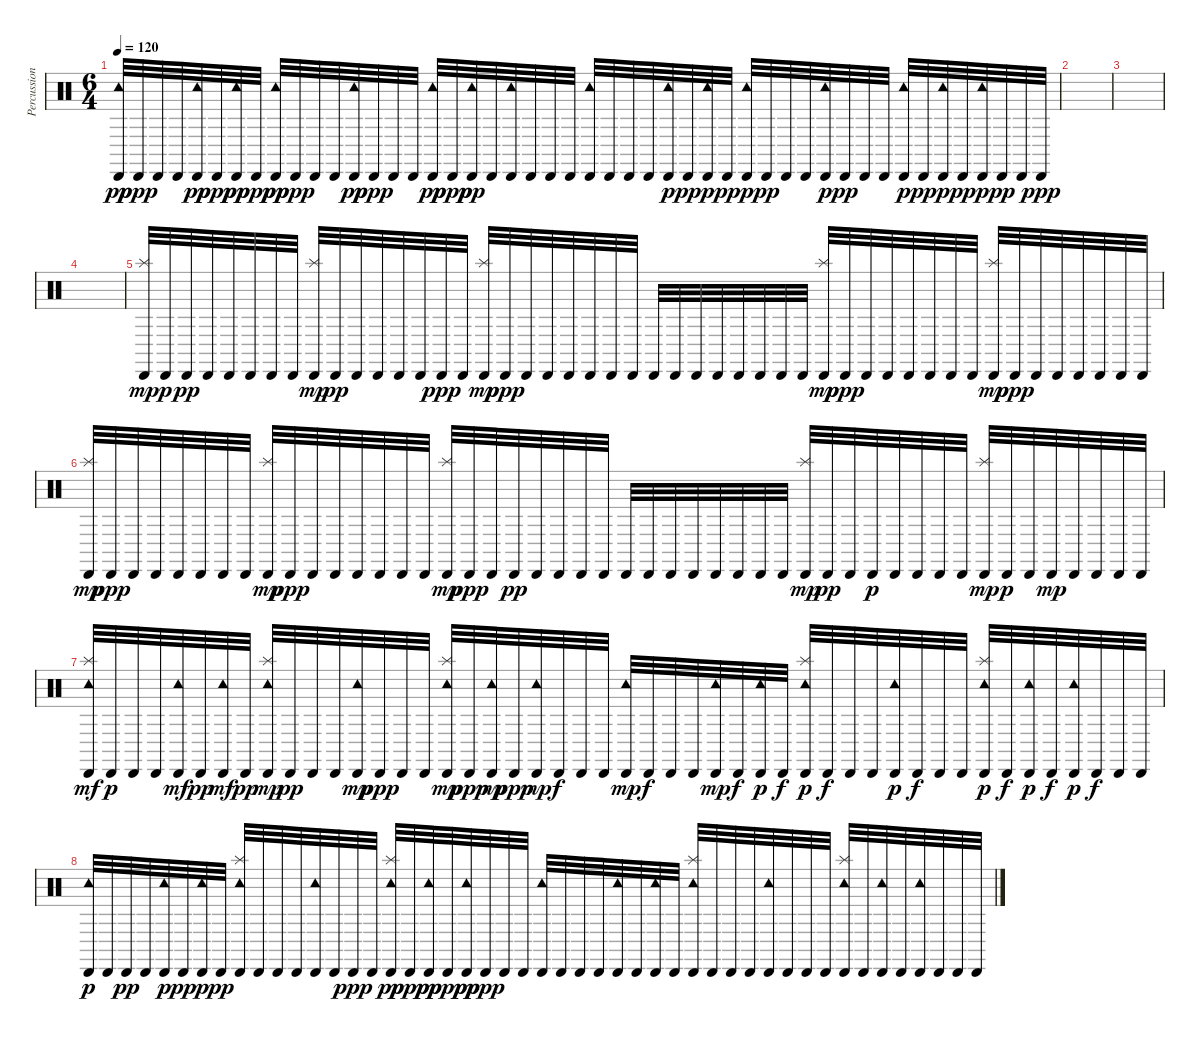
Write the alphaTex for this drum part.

\track ("Percussion" "Percussion") {instrument percussion}
\staff {score}
\articulation defaults
\ts (6 4)
\tempo 120
\clef neutral
\ks c
("Cabasa (hit)" "Tambourine (hit)").32{dy pp} "Cabasa (hit)".32{dy ppp} "Cabasa (hit)".32 "Cabasa (hit)".32 ("Cabasa (hit)" "Tambourine (hit)").32{dy pp} "Cabasa (hit)".32{dy ppp} ("Cabasa (hit)" "Tambourine (hit)").32{dy pp} "Cabasa (hit)".32{dy ppp} ("Cabasa (hit)" "Tambourine (hit)").32{dy pp} "Cabasa (hit)".32{dy ppp} "Cabasa (hit)".32 "Cabasa (hit)".32 ("Cabasa (hit)" "Tambourine (hit)").32{dy pp} "Cabasa (hit)".32{dy ppp} "Cabasa (hit)".32 "Cabasa (hit)".32 ("Cabasa (hit)" "Tambourine (hit)").32{dy pp} "Cabasa (hit)".32{dy ppp} ("Cabasa (hit)" "Tambourine (hit)").32{dy pp} "Cabasa (hit)".32 ("Cabasa (hit)" "Tambourine (hit)").32 "Cabasa (hit)".32 "Cabasa (hit)".32 "Cabasa (hit)".32 ("Cabasa (hit)" "Tambourine (hit)").32 "Cabasa (hit)".32 "Cabasa (hit)".32 "Cabasa (hit)".32 ("Cabasa (hit)" "Tambourine (hit)").32{dy p} "Cabasa (hit)".32{dy pp} ("Cabasa (hit)" "Tambourine (hit)").32{dy p} "Cabasa (hit)".32{dy pp} ("Cabasa (hit)" "Tambourine (hit)").32{dy p} "Cabasa (hit)".32{dy pp} "Cabasa (hit)".32 "Cabasa (hit)".32 ("Cabasa (hit)" "Tambourine (hit)").32{dy p} "Cabasa (hit)".32{dy pp} "Cabasa (hit)".32 "Cabasa (hit)".32 ("Cabasa (hit)" "Tambourine (hit)").32{dy p} "Cabasa (hit)".32{dy pp} ("Cabasa (hit)" "Tambourine (hit)").32{dy p} "Cabasa (hit)".32{dy pp} ("Cabasa (hit)" "Tambourine (hit)").32{dy p} "Cabasa (hit)".32{dy pp} "Cabasa (hit)".32 "Cabasa (hit)".32{dy ppp} |
|
|
|
("Cabasa (hit)" "Splash (hit)").32{dy mp} "Cabasa (hit)".32{dy p} "Cabasa (hit)".32{dy pp} "Cabasa (hit)".32 "Cabasa (hit)".32 "Cabasa (hit)".32 "Cabasa (hit)".32 "Cabasa (hit)".32 ("Cabasa (hit)" "Splash (hit)").32{dy mp} "Cabasa (hit)".32{dy pp} "Cabasa (hit)".32 "Cabasa (hit)".32 "Cabasa (hit)".32 "Cabasa (hit)".32 "Cabasa (hit)".32{dy ppp} "Cabasa (hit)".32 ("Cabasa (hit)" "Splash (hit)").32{dy mp} "Cabasa (hit)".32{dy ppp} "Cabasa (hit)".32 "Cabasa (hit)".32 "Cabasa (hit)".32 "Cabasa (hit)".32 "Cabasa (hit)".32 "Cabasa (hit)".32 "Cabasa (hit)".32 "Cabasa (hit)".32 "Cabasa (hit)".32 "Cabasa (hit)".32 "Cabasa (hit)".32 "Cabasa (hit)".32 "Cabasa (hit)".32 "Cabasa (hit)".32 ("Cabasa (hit)" "Splash (hit)").32{dy mp} "Cabasa (hit)".32{dy ppp} "Cabasa (hit)".32 "Cabasa (hit)".32 "Cabasa (hit)".32 "Cabasa (hit)".32 "Cabasa (hit)".32 "Cabasa (hit)".32 ("Cabasa (hit)" "Splash (hit)").32{dy mp} "Cabasa (hit)".32{dy ppp} "Cabasa (hit)".32 "Cabasa (hit)".32 "Cabasa (hit)".32 "Cabasa (hit)".32 "Cabasa (hit)".32 "Cabasa (hit)".32 |
("Cabasa (hit)" "Splash (hit)").32{dy mp} "Cabasa (hit)".32{dy ppp} "Cabasa (hit)".32 "Cabasa (hit)".32 "Cabasa (hit)".32 "Cabasa (hit)".32 "Cabasa (hit)".32 "Cabasa (hit)".32 ("Cabasa (hit)" "Splash (hit)").32{dy mp} "Cabasa (hit)".32{dy ppp} "Cabasa (hit)".32 "Cabasa (hit)".32 "Cabasa (hit)".32 "Cabasa (hit)".32 "Cabasa (hit)".32 "Cabasa (hit)".32 ("Cabasa (hit)" "Splash (hit)").32{dy mp} "Cabasa (hit)".32{dy ppp} "Cabasa (hit)".32 "Cabasa (hit)".32{dy pp} "Cabasa (hit)".32 "Cabasa (hit)".32 "Cabasa (hit)".32 "Cabasa (hit)".32 "Cabasa (hit)".32 "Cabasa (hit)".32 "Cabasa (hit)".32 "Cabasa (hit)".32 "Cabasa (hit)".32 "Cabasa (hit)".32 "Cabasa (hit)".32 "Cabasa (hit)".32 ("Cabasa (hit)" "Splash (hit)").32{dy mp} "Cabasa (hit)".32{dy pp} "Cabasa (hit)".32 "Cabasa (hit)".32{dy p} "Cabasa (hit)".32 "Cabasa (hit)".32 "Cabasa (hit)".32 "Cabasa (hit)".32 ("Cabasa (hit)" "Splash (hit)").32{dy mp} "Cabasa (hit)".32{dy p} "Cabasa (hit)".32 "Cabasa (hit)".32{dy mp} "Cabasa (hit)".32 "Cabasa (hit)".32 "Cabasa (hit)".32 "Cabasa (hit)".32 |
("Cabasa (hit)" "Splash (hit)" "Tambourine (hit)").32{dy mf} "Cabasa (hit)".32{dy p} "Cabasa (hit)".32 "Cabasa (hit)".32 ("Cabasa (hit)" "Tambourine (hit)").32{dy mf} "Cabasa (hit)".32{dy pp} ("Cabasa (hit)" "Tambourine (hit)").32{dy mf} "Cabasa (hit)".32{dy pp} ("Cabasa (hit)" "Splash (hit)" "Tambourine (hit)").32{dy mp} "Cabasa (hit)".32{dy pp} "Cabasa (hit)".32 "Cabasa (hit)".32 ("Cabasa (hit)" "Tambourine (hit)").32{dy mp} "Cabasa (hit)".32{dy ppp} "Cabasa (hit)".32 "Cabasa (hit)".32 ("Cabasa (hit)" "Splash (hit)" "Tambourine (hit)").32{dy mp} "Cabasa (hit)".32{dy ppp} ("Cabasa (hit)" "Tambourine (hit)").32{dy mp} "Cabasa (hit)".32{dy ppp} ("Cabasa (hit)" "Tambourine (hit)").32{dy mp} "Cabasa (hit)".32{dy f} "Cabasa (hit)".32 "Cabasa (hit)".32 ("Cabasa (hit)" "Tambourine (hit)").32{dy mp} "Cabasa (hit)".32{dy f} "Cabasa (hit)".32 "Cabasa (hit)".32 ("Cabasa (hit)" "Tambourine (hit)").32{dy mp} "Cabasa (hit)".32{dy f} ("Cabasa (hit)" "Tambourine (hit)").32{dy p} "Cabasa (hit)".32{dy f} ("Cabasa (hit)" "Splash (hit)" "Tambourine (hit)").32{dy p} "Cabasa (hit)".32{dy f} "Cabasa (hit)".32 "Cabasa (hit)".32 ("Cabasa (hit)" "Tambourine (hit)").32{dy p} "Cabasa (hit)".32{dy f} "Cabasa (hit)".32 "Cabasa (hit)".32 ("Cabasa (hit)" "Splash (hit)" "Tambourine (hit)").32{dy p} "Cabasa (hit)".32{dy f} ("Cabasa (hit)" "Tambourine (hit)").32{dy p} "Cabasa (hit)".32{dy f} ("Cabasa (hit)" "Tambourine (hit)").32{dy p} "Cabasa (hit)".32{dy f} "Cabasa (hit)".32 "Cabasa (hit)".32 |
("Cabasa (hit)" "Tambourine (hit)").32{dy p} "Cabasa (hit)".32 "Cabasa (hit)".32{dy pp} "Cabasa (hit)".32 ("Cabasa (hit)" "Tambourine (hit)").32{dy p} "Cabasa (hit)".32{dy pp} ("Cabasa (hit)" "Tambourine (hit)").32{dy p} "Cabasa (hit)".32{dy pp} ("Cabasa (hit)" "Splash (hit)" "Tambourine (hit)").32 "Cabasa (hit)".32 "Cabasa (hit)".32 "Cabasa (hit)".32 ("Cabasa (hit)" "Tambourine (hit)").32 "Cabasa (hit)".32 "Cabasa (hit)".32{dy ppp} "Cabasa (hit)".32 ("Cabasa (hit)" "Splash (hit)" "Tambourine (hit)").32{dy pp} "Cabasa (hit)".32{dy ppp} ("Cabasa (hit)" "Tambourine (hit)").32{dy pp} "Cabasa (hit)".32{dy ppp} ("Cabasa (hit)" "Tambourine (hit)").32{dy pp} "Cabasa (hit)".32{dy ppp} "Cabasa (hit)".32 "Cabasa (hit)".32 ("Cabasa (hit)" "Tambourine (hit)").32 "Cabasa (hit)".32 "Cabasa (hit)".32 "Cabasa (hit)".32 ("Cabasa (hit)" "Tambourine (hit)").32 "Cabasa (hit)".32 ("Cabasa (hit)" "Tambourine (hit)").32 "Cabasa (hit)".32 ("Cabasa (hit)" "Splash (hit)" "Tambourine (hit)").32 "Cabasa (hit)".32 "Cabasa (hit)".32 "Cabasa (hit)".32 ("Cabasa (hit)" "Tambourine (hit)").32 "Cabasa (hit)".32 "Cabasa (hit)".32 "Cabasa (hit)".32 ("Cabasa (hit)" "Splash (hit)" "Tambourine (hit)").32 "Cabasa (hit)".32 ("Cabasa (hit)" "Tambourine (hit)").32 "Cabasa (hit)".32 ("Cabasa (hit)" "Tambourine (hit)").32 "Cabasa (hit)".32 "Cabasa (hit)".32 "Cabasa (hit)".32
